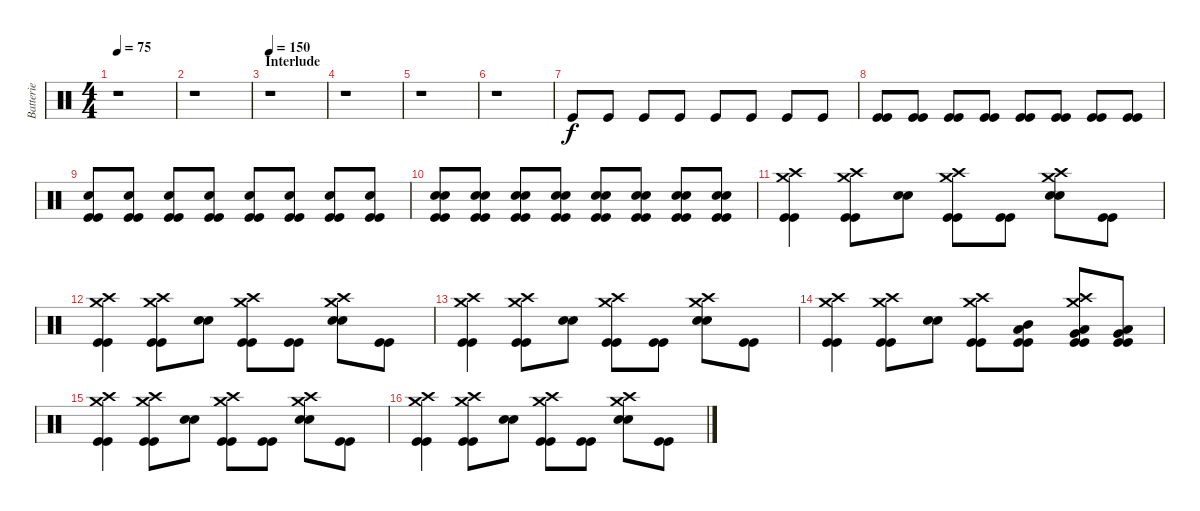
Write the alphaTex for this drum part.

\track ("Batterie" "Batterie") {instrument percussion}
\staff {score}
\articulation defaults
\ts (4 4)
\tempo 75
\clef neutral
\ks c
r.1{dy f} |
r.1 |
\section ("" "Interlude")
\tempo 150
r.1 |
r.1 |
r.1 |
r.1 |
"Kick (hit)".8{volume 16} "Kick (hit)".8 "Kick (hit)".8 "Kick (hit)".8 "Kick (hit)".8 "Kick (hit)".8 "Kick (hit)".8 "Kick (hit)".8 |
("Kick (hit)" "Kick (hit)").8 ("Kick (hit)" "Kick (hit)").8 ("Kick (hit)" "Kick (hit)").8 ("Kick (hit)" "Kick (hit)").8 ("Kick (hit)" "Kick (hit)").8 ("Kick (hit)" "Kick (hit)").8 ("Kick (hit)" "Kick (hit)").8 ("Kick (hit)" "Kick (hit)").8 |
("Electric Snare (hit)" "Kick (hit)" "Kick (hit)").8 ("Electric Snare (hit)" "Kick (hit)" "Kick (hit)").8 ("Electric Snare (hit)" "Kick (hit)" "Kick (hit)").8 ("Electric Snare (hit)" "Kick (hit)" "Kick (hit)").8 ("Electric Snare (hit)" "Kick (hit)" "Kick (hit)").8 ("Electric Snare (hit)" "Kick (hit)" "Kick (hit)").8 ("Electric Snare (hit)" "Kick (hit)" "Kick (hit)").8 ("Electric Snare (hit)" "Kick (hit)" "Kick (hit)").8 |
("Electric Snare (hit)" "Electric Snare (hit)" "Kick (hit)" "Kick (hit)").8 ("Electric Snare (hit)" "Electric Snare (hit)" "Kick (hit)" "Kick (hit)").8 ("Electric Snare (hit)" "Electric Snare (hit)" "Kick (hit)" "Kick (hit)").8 ("Electric Snare (hit)" "Electric Snare (hit)" "Kick (hit)" "Kick (hit)").8 ("Electric Snare (hit)" "Electric Snare (hit)" "Kick (hit)" "Kick (hit)").8 ("Electric Snare (hit)" "Electric Snare (hit)" "Kick (hit)" "Kick (hit)").8 ("Electric Snare (hit)" "Electric Snare (hit)" "Kick (hit)" "Kick (hit)").8 ("Electric Snare (hit)" "Electric Snare (hit)" "Kick (hit)" "Kick (hit)").8 |
("Crash high (hit)" "Crash medium (hit)" "Kick (hit)" "Kick (hit)").4 ("Crash high (hit)" "Crash medium (hit)" "Kick (hit)" "Kick (hit)").8 ("Electric Snare (hit)" "Electric Snare (hit)").8 ("Crash high (hit)" "Crash medium (hit)" "Kick (hit)" "Kick (hit)").8 ("Kick (hit)" "Kick (hit)").8 ("Crash high (hit)" "Crash medium (hit)" "Electric Snare (hit)" "Electric Snare (hit)").8 ("Kick (hit)" "Kick (hit)").8 |
("Crash high (hit)" "Crash medium (hit)" "Kick (hit)" "Kick (hit)").4 ("Crash high (hit)" "Crash medium (hit)" "Kick (hit)" "Kick (hit)").8 ("Electric Snare (hit)" "Electric Snare (hit)").8 ("Crash high (hit)" "Crash medium (hit)" "Kick (hit)" "Kick (hit)").8 ("Kick (hit)" "Kick (hit)").8 ("Crash high (hit)" "Crash medium (hit)" "Electric Snare (hit)" "Electric Snare (hit)").8 ("Kick (hit)" "Kick (hit)").8 |
("Crash high (hit)" "Crash medium (hit)" "Kick (hit)" "Kick (hit)").4 ("Crash high (hit)" "Crash medium (hit)" "Kick (hit)" "Kick (hit)").8 ("Electric Snare (hit)" "Electric Snare (hit)").8 ("Crash high (hit)" "Crash medium (hit)" "Kick (hit)" "Kick (hit)").8 ("Kick (hit)" "Kick (hit)").8 ("Crash high (hit)" "Crash medium (hit)" "Electric Snare (hit)" "Electric Snare (hit)").8 ("Kick (hit)" "Kick (hit)").8 |
("Crash high (hit)" "Crash medium (hit)" "Kick (hit)" "Kick (hit)").4 ("Crash high (hit)" "Crash medium (hit)" "Kick (hit)" "Kick (hit)").8 ("Electric Snare (hit)" "Electric Snare (hit)").8 ("Crash high (hit)" "Crash medium (hit)" "Kick (hit)" "Kick (hit)").8 ("Mid Tom (hit)" "Low Floor Tom (hit)" "Kick (hit)" "Kick (hit)").8 ("Crash high (hit)" "Crash medium (hit)" "Very Low Tom (hit)" "Low Floor Tom (hit)" "Kick (hit)" "Kick (hit)").8 ("Very Low Tom (hit)" "Low Floor Tom (hit)" "Kick (hit)" "Kick (hit)").8 |
("Crash high (hit)" "Crash medium (hit)" "Kick (hit)" "Kick (hit)").4 ("Crash high (hit)" "Crash medium (hit)" "Kick (hit)" "Kick (hit)").8 ("Electric Snare (hit)" "Electric Snare (hit)").8 ("Crash high (hit)" "Crash medium (hit)" "Kick (hit)" "Kick (hit)").8 ("Kick (hit)" "Kick (hit)").8 ("Crash high (hit)" "Crash medium (hit)" "Electric Snare (hit)" "Electric Snare (hit)").8 ("Kick (hit)" "Kick (hit)").8 |
("Crash high (hit)" "Crash medium (hit)" "Kick (hit)" "Kick (hit)").4 ("Crash high (hit)" "Crash medium (hit)" "Kick (hit)" "Kick (hit)").8 ("Electric Snare (hit)" "Electric Snare (hit)").8 ("Crash high (hit)" "Crash medium (hit)" "Kick (hit)" "Kick (hit)").8 ("Kick (hit)" "Kick (hit)").8 ("Crash high (hit)" "Crash medium (hit)" "Electric Snare (hit)" "Electric Snare (hit)").8 ("Kick (hit)" "Kick (hit)").8
